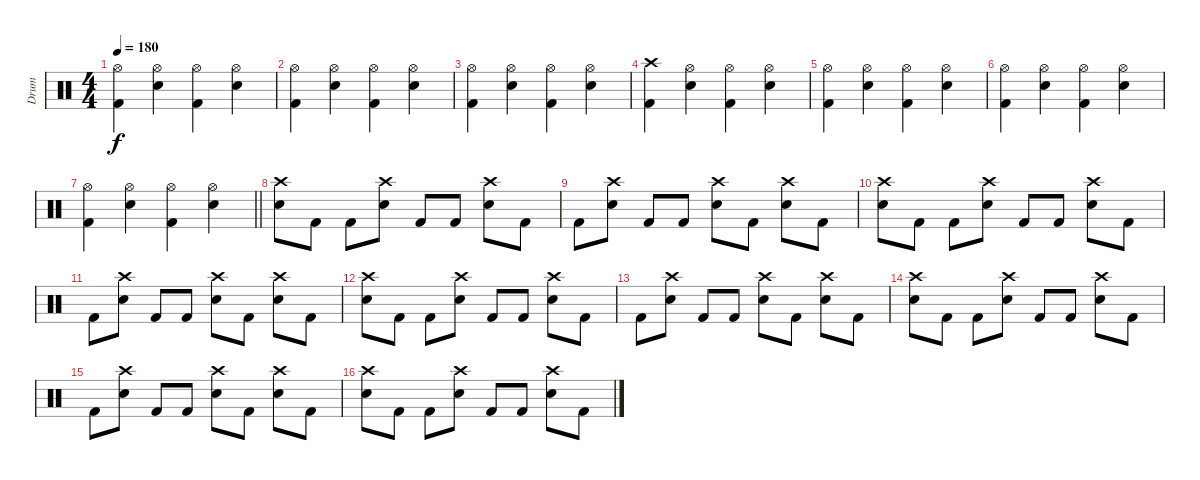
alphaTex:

\track ("Drum" "Drum") {instrument percussion}
\staff {score}
\articulation defaults
\ts (4 4)
\tempo 180
\clef neutral
\ks c
("Hi-Hat (open)" "Kick (hit) 2").4{dy f} ("Hi-Hat (open)" "Electric Snare (hit)").4 ("Hi-Hat (open)" "Kick (hit) 2").4 ("Hi-Hat (open)" "Electric Snare (hit)").4 |
("Hi-Hat (open)" "Kick (hit) 2").4 ("Hi-Hat (open)" "Electric Snare (hit)").4 ("Hi-Hat (open)" "Kick (hit) 2").4 ("Hi-Hat (open)" "Electric Snare (hit)").4 |
("Hi-Hat (open)" "Kick (hit) 2").4 ("Hi-Hat (open)" "Electric Snare (hit)").4 ("Hi-Hat (open)" "Kick (hit) 2").4 ("Hi-Hat (open)" "Electric Snare (hit)").4 |
("Crash high (hit)" "Kick (hit) 2").4 ("Hi-Hat (open)" "Electric Snare (hit)").4 ("Hi-Hat (open)" "Kick (hit) 2").4 ("Hi-Hat (open)" "Electric Snare (hit)").4 |
("Hi-Hat (open)" "Kick (hit) 2").4 ("Hi-Hat (open)" "Electric Snare (hit)").4 ("Hi-Hat (open)" "Kick (hit) 2").4 ("Hi-Hat (open)" "Electric Snare (hit)").4 |
("Hi-Hat (open)" "Kick (hit) 2").4 ("Hi-Hat (open)" "Electric Snare (hit)").4 ("Hi-Hat (open)" "Kick (hit) 2").4 ("Hi-Hat (open)" "Electric Snare (hit)").4 |
\barLineRight lightlight
("Hi-Hat (open)" "Kick (hit) 2").4 ("Hi-Hat (open)" "Electric Snare (hit)").4 ("Hi-Hat (open)" "Kick (hit) 2").4 ("Hi-Hat (open)" "Electric Snare (hit)").4 |
("Crash high (hit)" "Electric Snare (hit)").8 "Kick (hit) 2".8 "Kick (hit) 2".8 ("Crash high (hit)" "Electric Snare (hit)").8 "Kick (hit) 2".8 "Kick (hit) 2".8 ("Crash high (hit)" "Electric Snare (hit)").8 "Kick (hit) 2".8 |
"Kick (hit) 2".8 ("Crash high (hit)" "Electric Snare (hit)").8 "Kick (hit) 2".8 "Kick (hit) 2".8 ("Crash high (hit)" "Electric Snare (hit)").8 "Kick (hit) 2".8 ("Crash high (hit)" "Electric Snare (hit)").8 "Kick (hit) 2".8 |
("Crash high (hit)" "Electric Snare (hit)").8 "Kick (hit) 2".8 "Kick (hit) 2".8 ("Crash high (hit)" "Electric Snare (hit)").8 "Kick (hit) 2".8 "Kick (hit) 2".8 ("Crash high (hit)" "Electric Snare (hit)").8 "Kick (hit) 2".8 |
"Kick (hit) 2".8 ("Crash high (hit)" "Electric Snare (hit)").8 "Kick (hit) 2".8 "Kick (hit) 2".8 ("Crash high (hit)" "Electric Snare (hit)").8 "Kick (hit) 2".8 ("Crash high (hit)" "Electric Snare (hit)").8 "Kick (hit) 2".8 |
("Crash high (hit)" "Electric Snare (hit)").8 "Kick (hit) 2".8 "Kick (hit) 2".8 ("Crash high (hit)" "Electric Snare (hit)").8 "Kick (hit) 2".8 "Kick (hit) 2".8 ("Crash high (hit)" "Electric Snare (hit)").8 "Kick (hit) 2".8 |
"Kick (hit) 2".8 ("Crash high (hit)" "Electric Snare (hit)").8 "Kick (hit) 2".8 "Kick (hit) 2".8 ("Crash high (hit)" "Electric Snare (hit)").8 "Kick (hit) 2".8 ("Crash high (hit)" "Electric Snare (hit)").8 "Kick (hit) 2".8 |
("Crash high (hit)" "Electric Snare (hit)").8 "Kick (hit) 2".8 "Kick (hit) 2".8 ("Crash high (hit)" "Electric Snare (hit)").8 "Kick (hit) 2".8 "Kick (hit) 2".8 ("Crash high (hit)" "Electric Snare (hit)").8 "Kick (hit) 2".8 |
"Kick (hit) 2".8 ("Crash high (hit)" "Electric Snare (hit)").8 "Kick (hit) 2".8 "Kick (hit) 2".8 ("Crash high (hit)" "Electric Snare (hit)").8 "Kick (hit) 2".8 ("Crash high (hit)" "Electric Snare (hit)").8 "Kick (hit) 2".8 |
("Crash high (hit)" "Electric Snare (hit)").8 "Kick (hit) 2".8 "Kick (hit) 2".8 ("Crash high (hit)" "Electric Snare (hit)").8 "Kick (hit) 2".8 "Kick (hit) 2".8 ("Crash high (hit)" "Electric Snare (hit)").8 "Kick (hit) 2".8
